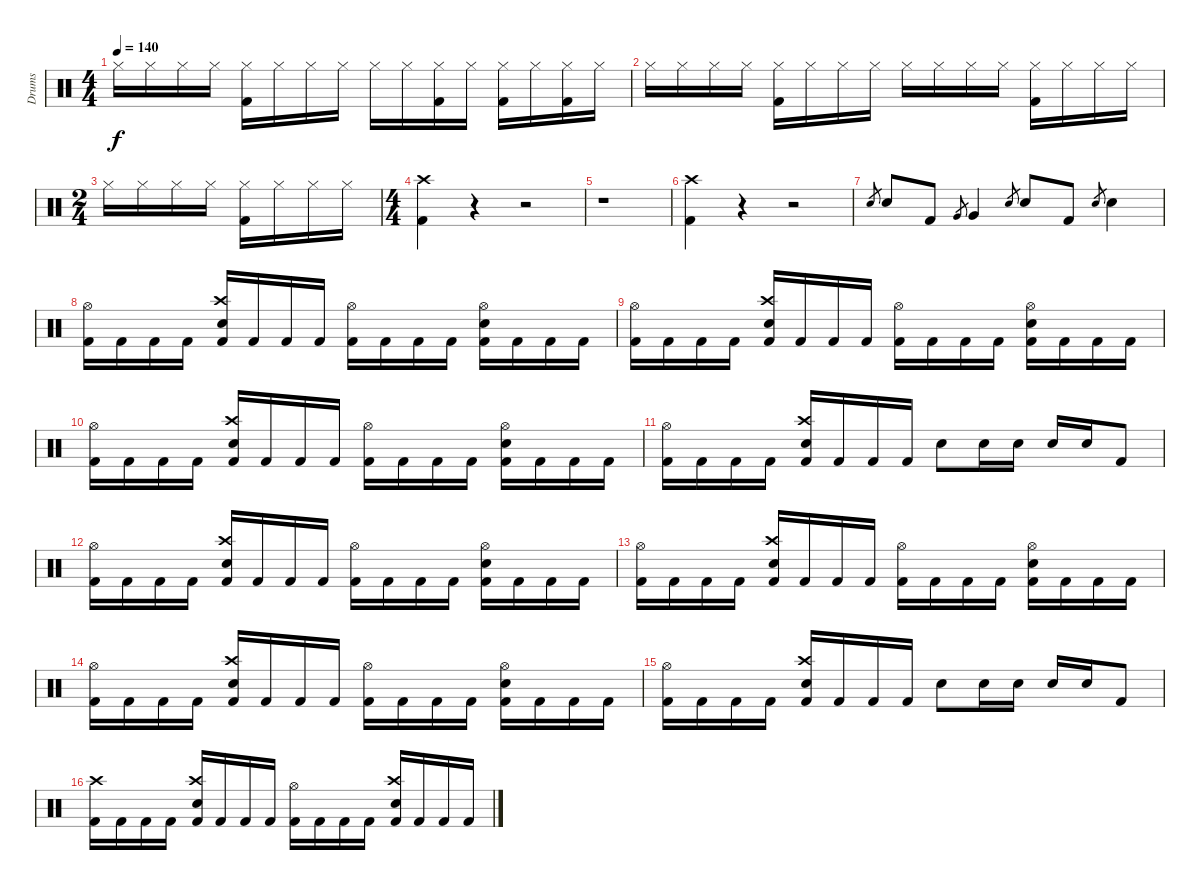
\track ("Drums" "Drums") {instrument percussion}
\staff {score}
\articulation defaults
\ts (4 4)
\tempo 140
\clef neutral
\ks c "Hi-Hat (closed)".16{dy f} "Hi-Hat (closed)".16 "Hi-Hat (closed)".16 "Hi-Hat (closed)".16
("Hi-Hat (closed)" "Kick (hit) 2").16 "Hi-Hat (closed)".16 "Hi-Hat (closed)".16 "Hi-Hat (closed)".16 "Hi-Hat (closed)".16 "Hi-Hat (closed)".16 ("Hi-Hat (closed)" "Kick (hit) 2").16 "Hi-Hat (closed)".16 ("Hi-Hat (closed)" "Kick (hit) 2").16 "Hi-Hat (closed)".16 ("Hi-Hat (closed)" "Kick (hit) 2").16 "Hi-Hat (closed)".16 |
"Hi-Hat (closed)".16 "Hi-Hat (closed)".16 "Hi-Hat (closed)".16 "Hi-Hat (closed)".16 ("Hi-Hat (closed)" "Kick (hit) 2").16 "Hi-Hat (closed)".16 "Hi-Hat (closed)".16 "Hi-Hat (closed)".16 "Hi-Hat (closed)".16 "Hi-Hat (closed)".16 "Hi-Hat (closed)".16 "Hi-Hat (closed)".16 ("Hi-Hat (closed)" "Kick (hit) 2").16 "Hi-Hat (closed)".16 "Hi-Hat (closed)".16 "Hi-Hat (closed)".16 |
\ts (2 4)
"Hi-Hat (closed)".16 "Hi-Hat (closed)".16 "Hi-Hat (closed)".16 "Hi-Hat (closed)".16 ("Hi-Hat (closed)" "Kick (hit) 2").16 "Hi-Hat (closed)".16 "Hi-Hat (closed)".16 "Hi-Hat (closed)".16 |
\ts (4 4)
("Crash high (hit)" "Kick (hit) 2").4 r.4 r.2 |
r.1 |
("Crash high (hit)" "Kick (hit) 2").4 r.4 r.2 |
"Electric Snare (hit)".8{gr} "Electric Snare (hit)".8 "Kick (hit) 2".8 "Very Low Tom (hit)".8{gr} "Very Low Tom (hit)".4 "Electric Snare (hit)".8{gr} "Electric Snare (hit)".8 "Kick (hit) 2".8 "Electric Snare (hit)".8{gr} "Electric Snare (hit)".4 |
("Hi-Hat (open)" "Kick (hit) 2").16 "Kick (hit) 2".16 "Kick (hit) 2".16 "Kick (hit) 2".16 ("Crash high (hit)" "Electric Snare (hit)" "Kick (hit) 2").16 "Kick (hit) 2".16 "Kick (hit) 2".16 "Kick (hit) 2".16 ("Hi-Hat (open)" "Kick (hit) 2").16 "Kick (hit) 2".16 "Kick (hit) 2".16 "Kick (hit) 2".16 ("Hi-Hat (open)" "Electric Snare (hit)" "Kick (hit) 2").16 "Kick (hit) 2".16 "Kick (hit) 2".16 "Kick (hit) 2".16 |
("Hi-Hat (open)" "Kick (hit) 2").16 "Kick (hit) 2".16 "Kick (hit) 2".16 "Kick (hit) 2".16 ("Crash high (hit)" "Electric Snare (hit)" "Kick (hit) 2").16 "Kick (hit) 2".16 "Kick (hit) 2".16 "Kick (hit) 2".16 ("Hi-Hat (open)" "Kick (hit) 2").16 "Kick (hit) 2".16 "Kick (hit) 2".16 "Kick (hit) 2".16 ("Hi-Hat (open)" "Electric Snare (hit)" "Kick (hit) 2").16 "Kick (hit) 2".16 "Kick (hit) 2".16 "Kick (hit) 2".16 |
("Hi-Hat (open)" "Kick (hit) 2").16 "Kick (hit) 2".16 "Kick (hit) 2".16 "Kick (hit) 2".16 ("Crash high (hit)" "Electric Snare (hit)" "Kick (hit) 2").16 "Kick (hit) 2".16 "Kick (hit) 2".16 "Kick (hit) 2".16 ("Hi-Hat (open)" "Kick (hit) 2").16 "Kick (hit) 2".16 "Kick (hit) 2".16 "Kick (hit) 2".16 ("Hi-Hat (open)" "Electric Snare (hit)" "Kick (hit) 2").16 "Kick (hit) 2".16 "Kick (hit) 2".16 "Kick (hit) 2".16 |
("Hi-Hat (open)" "Kick (hit) 2").16 "Kick (hit) 2".16 "Kick (hit) 2".16 "Kick (hit) 2".16 ("Crash high (hit)" "Electric Snare (hit)" "Kick (hit) 2").16 "Kick (hit) 2".16 "Kick (hit) 2".16 "Kick (hit) 2".16 "Electric Snare (hit)".8 "Electric Snare (hit)".16 "Electric Snare (hit)".16 "Electric Snare (hit)".16 "Electric Snare (hit)".16 "Kick (hit) 2".8 |
("Hi-Hat (open)" "Kick (hit) 2").16 "Kick (hit) 2".16 "Kick (hit) 2".16 "Kick (hit) 2".16 ("Crash high (hit)" "Electric Snare (hit)" "Kick (hit) 2").16 "Kick (hit) 2".16 "Kick (hit) 2".16 "Kick (hit) 2".16 ("Hi-Hat (open)" "Kick (hit) 2").16 "Kick (hit) 2".16 "Kick (hit) 2".16 "Kick (hit) 2".16 ("Hi-Hat (open)" "Electric Snare (hit)" "Kick (hit) 2").16 "Kick (hit) 2".16 "Kick (hit) 2".16 "Kick (hit) 2".16 |
("Hi-Hat (open)" "Kick (hit) 2").16 "Kick (hit) 2".16 "Kick (hit) 2".16 "Kick (hit) 2".16 ("Crash high (hit)" "Electric Snare (hit)" "Kick (hit) 2").16 "Kick (hit) 2".16 "Kick (hit) 2".16 "Kick (hit) 2".16 ("Hi-Hat (open)" "Kick (hit) 2").16 "Kick (hit) 2".16 "Kick (hit) 2".16 "Kick (hit) 2".16 ("Hi-Hat (open)" "Electric Snare (hit)" "Kick (hit) 2").16 "Kick (hit) 2".16 "Kick (hit) 2".16 "Kick (hit) 2".16 |
("Hi-Hat (open)" "Kick (hit) 2").16 "Kick (hit) 2".16 "Kick (hit) 2".16 "Kick (hit) 2".16 ("Crash high (hit)" "Electric Snare (hit)" "Kick (hit) 2").16 "Kick (hit) 2".16 "Kick (hit) 2".16 "Kick (hit) 2".16 ("Hi-Hat (open)" "Kick (hit) 2").16 "Kick (hit) 2".16 "Kick (hit) 2".16 "Kick (hit) 2".16 ("Hi-Hat (open)" "Electric Snare (hit)" "Kick (hit) 2").16 "Kick (hit) 2".16 "Kick (hit) 2".16 "Kick (hit) 2".16 |
("Hi-Hat (open)" "Kick (hit) 2").16 "Kick (hit) 2".16 "Kick (hit) 2".16 "Kick (hit) 2".16 ("Crash high (hit)" "Electric Snare (hit)" "Kick (hit) 2").16 "Kick (hit) 2".16 "Kick (hit) 2".16 "Kick (hit) 2".16 "Electric Snare (hit)".8 "Electric Snare (hit)".16 "Electric Snare (hit)".16 "Electric Snare (hit)".16 "Electric Snare (hit)".16 "Kick (hit) 2".8 |
("Crash high (hit)" "Kick (hit) 2").16 "Kick (hit) 2".16 "Kick (hit) 2".16 "Kick (hit) 2".16 ("Crash high (hit)" "Electric Snare (hit)" "Kick (hit) 2").16 "Kick (hit) 2".16 "Kick (hit) 2".16 "Kick (hit) 2".16 ("Hi-Hat (open)" "Kick (hit) 2").16 "Kick (hit) 2".16 "Kick (hit) 2".16 "Kick (hit) 2".16 ("Crash high (hit)" "Electric Snare (hit)" "Kick (hit) 2").16 "Kick (hit) 2".16 "Kick (hit) 2".16 "Kick (hit) 2".16
